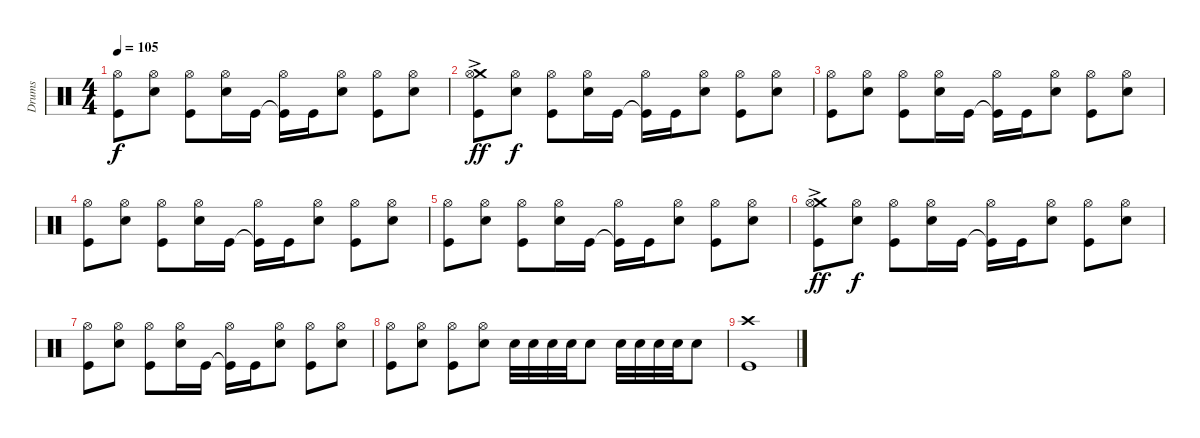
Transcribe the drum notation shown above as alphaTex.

\track ("Drums" "Drums") {instrument percussion}
\staff {score}
\articulation defaults
\ts (4 4)
\tempo 105
\clef neutral
\ks c
("Kick (hit)" "Hi-Hat (open)").8{dy f} ("Electric Snare (hit)" "Hi-Hat (open)").8 ("Kick (hit)" "Hi-Hat (open)").8 ("Electric Snare (hit)" "Hi-Hat (open)").16 "Kick (hit)".16 ("Kick (hit)"{t} "Hi-Hat (open)").16 "Kick (hit)".16 ("Electric Snare (hit)" "Hi-Hat (open)").8 ("Kick (hit)" "Hi-Hat (open)").8 ("Electric Snare (hit)" "Hi-Hat (open)").8 |
("Kick (hit)" "Crash medium (hit)"{ac} "Hi-Hat (open)").8{dy ff} ("Electric Snare (hit)" "Hi-Hat (open)").8{dy f} ("Kick (hit)" "Hi-Hat (open)").8 ("Electric Snare (hit)" "Hi-Hat (open)").16 "Kick (hit)".16 ("Kick (hit)"{t} "Hi-Hat (open)").16 "Kick (hit)".16 ("Electric Snare (hit)" "Hi-Hat (open)").8 ("Kick (hit)" "Hi-Hat (open)").8 ("Electric Snare (hit)" "Hi-Hat (open)").8 |
("Kick (hit)" "Hi-Hat (open)").8 ("Electric Snare (hit)" "Hi-Hat (open)").8 ("Kick (hit)" "Hi-Hat (open)").8 ("Electric Snare (hit)" "Hi-Hat (open)").16 "Kick (hit)".16 ("Kick (hit)"{t} "Hi-Hat (open)").16 "Kick (hit)".16 ("Electric Snare (hit)" "Hi-Hat (open)").8 ("Kick (hit)" "Hi-Hat (open)").8 ("Electric Snare (hit)" "Hi-Hat (open)").8 |
("Kick (hit)" "Hi-Hat (open)").8 ("Electric Snare (hit)" "Hi-Hat (open)").8 ("Kick (hit)" "Hi-Hat (open)").8 ("Electric Snare (hit)" "Hi-Hat (open)").16 "Kick (hit)".16 ("Kick (hit)"{t} "Hi-Hat (open)").16 "Kick (hit)".16 ("Electric Snare (hit)" "Hi-Hat (open)").8 ("Kick (hit)" "Hi-Hat (open)").8 ("Electric Snare (hit)" "Hi-Hat (open)").8 |
("Kick (hit)" "Hi-Hat (open)").8 ("Electric Snare (hit)" "Hi-Hat (open)").8 ("Kick (hit)" "Hi-Hat (open)").8 ("Electric Snare (hit)" "Hi-Hat (open)").16 "Kick (hit)".16 ("Kick (hit)"{t} "Hi-Hat (open)").16 "Kick (hit)".16 ("Electric Snare (hit)" "Hi-Hat (open)").8 ("Kick (hit)" "Hi-Hat (open)").8 ("Electric Snare (hit)" "Hi-Hat (open)").8 |
("Kick (hit)" "Crash medium (hit)"{ac} "Hi-Hat (open)").8{dy ff} ("Electric Snare (hit)" "Hi-Hat (open)").8{dy f} ("Kick (hit)" "Hi-Hat (open)").8 ("Electric Snare (hit)" "Hi-Hat (open)").16 "Kick (hit)".16 ("Kick (hit)"{t} "Hi-Hat (open)").16 "Kick (hit)".16 ("Electric Snare (hit)" "Hi-Hat (open)").8 ("Kick (hit)" "Hi-Hat (open)").8 ("Electric Snare (hit)" "Hi-Hat (open)").8 |
("Kick (hit)" "Hi-Hat (open)").8 ("Electric Snare (hit)" "Hi-Hat (open)").8 ("Kick (hit)" "Hi-Hat (open)").8 ("Electric Snare (hit)" "Hi-Hat (open)").16 "Kick (hit)".16 ("Kick (hit)"{t} "Hi-Hat (open)").16 "Kick (hit)".16 ("Electric Snare (hit)" "Hi-Hat (open)").8 ("Kick (hit)" "Hi-Hat (open)").8 ("Electric Snare (hit)" "Hi-Hat (open)").8 |
("Kick (hit)" "Hi-Hat (open)").8 ("Electric Snare (hit)" "Hi-Hat (open)").8 ("Kick (hit)" "Hi-Hat (open)").8 ("Electric Snare (hit)" "Hi-Hat (open)").8 "Electric Snare (hit)".32 "Electric Snare (hit)".32 "Electric Snare (hit)".32 "Electric Snare (hit)".32 "Electric Snare (hit)".8 "Electric Snare (hit)".32 "Electric Snare (hit)".32 "Electric Snare (hit)".32 "Electric Snare (hit)".32 "Electric Snare (hit)".8 |
("Kick (hit)" "Crash high (hit)").1
